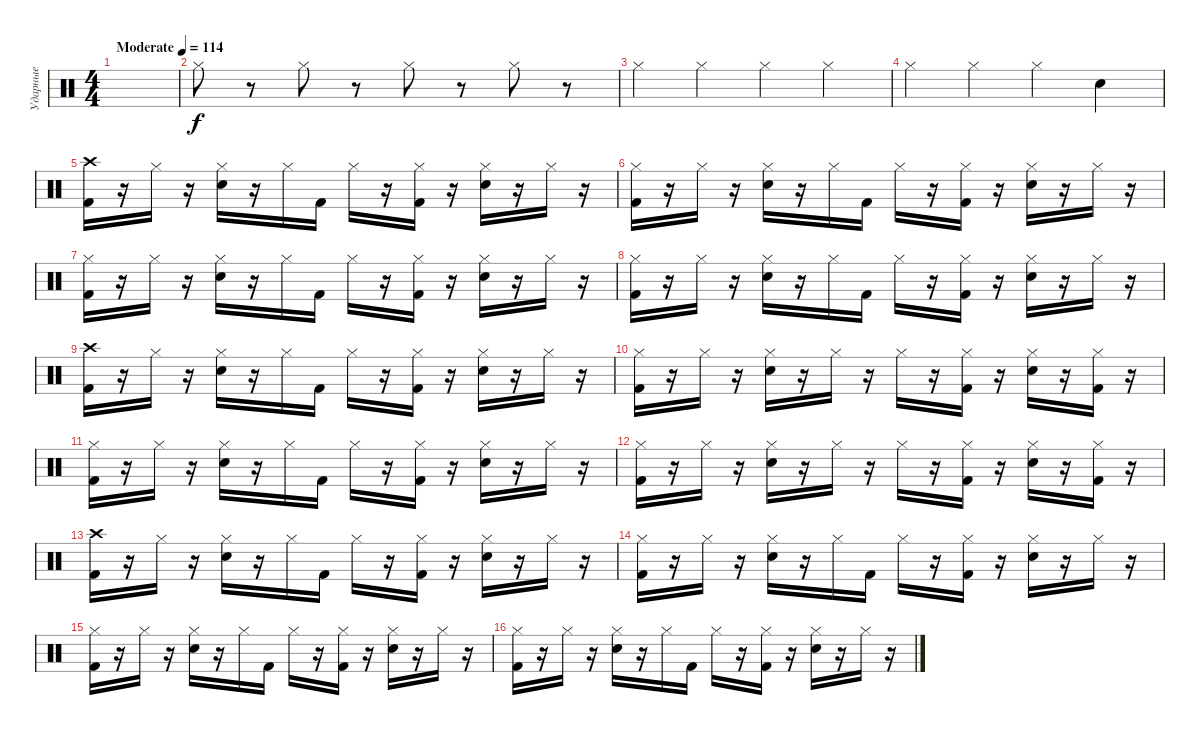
\track ("Ударные" "Ударные") {instrument percussion}
\staff {score}
\articulation defaults
\ts (4 4)
\tempo (114 "Moderate")
\clef neutral
\ks c
|
"Hi-Hat (closed)".8 r.8 "Hi-Hat (closed)".8 r.8 "Hi-Hat (closed)".8 r.8 "Hi-Hat (closed)".8 r.8 |
"Hi-Hat (closed)".4 "Hi-Hat (closed)".4 "Hi-Hat (closed)".4 "Hi-Hat (closed)".4 |
"Hi-Hat (closed)".4 "Hi-Hat (closed)".4 "Hi-Hat (closed)".4 "Electric Snare (hit)".4 |
("Kick (hit) 2" "Crash high (hit)").16 r.16 "Hi-Hat (closed)".16 r.16 ("Electric Snare (hit)" "Hi-Hat (closed)").16 r.16 "Hi-Hat (closed)".16 "Kick (hit) 2".16 "Hi-Hat (closed)".16 r.16 ("Kick (hit) 2" "Hi-Hat (closed)").16 r.16 ("Electric Snare (hit)" "Hi-Hat (closed)").16 r.16 "Hi-Hat (closed)".16 r.16 |
("Kick (hit) 2" "Hi-Hat (closed)").16 r.16 "Hi-Hat (closed)".16 r.16 ("Electric Snare (hit)" "Hi-Hat (closed)").16 r.16 "Hi-Hat (closed)".16 "Kick (hit) 2".16 "Hi-Hat (closed)".16 r.16 ("Kick (hit) 2" "Hi-Hat (closed)").16 r.16 ("Electric Snare (hit)" "Hi-Hat (closed)").16 r.16 "Hi-Hat (closed)".16 r.16 |
("Kick (hit) 2" "Hi-Hat (closed)").16 r.16 "Hi-Hat (closed)".16 r.16 ("Electric Snare (hit)" "Hi-Hat (closed)").16 r.16 "Hi-Hat (closed)".16 "Kick (hit) 2".16 "Hi-Hat (closed)".16 r.16 ("Kick (hit) 2" "Hi-Hat (closed)").16 r.16 ("Electric Snare (hit)" "Hi-Hat (closed)").16 r.16 "Hi-Hat (closed)".16 r.16 |
("Kick (hit) 2" "Hi-Hat (closed)").16 r.16 "Hi-Hat (closed)".16 r.16 ("Electric Snare (hit)" "Hi-Hat (closed)").16 r.16 "Hi-Hat (closed)".16 "Kick (hit) 2".16 "Hi-Hat (closed)".16 r.16 ("Kick (hit) 2" "Hi-Hat (closed)").16 r.16 ("Electric Snare (hit)" "Hi-Hat (closed)").16 r.16 "Hi-Hat (closed)".16 r.16 |
("Kick (hit) 2" "Crash high (hit)").16 r.16 "Hi-Hat (closed)".16 r.16 ("Electric Snare (hit)" "Hi-Hat (closed)").16 r.16 "Hi-Hat (closed)".16 "Kick (hit) 2".16 "Hi-Hat (closed)".16 r.16 ("Kick (hit) 2" "Hi-Hat (closed)").16 r.16 ("Electric Snare (hit)" "Hi-Hat (closed)").16 r.16 "Hi-Hat (closed)".16 r.16 |
("Kick (hit) 2" "Hi-Hat (closed)").16 r.16 "Hi-Hat (closed)".16 r.16 ("Electric Snare (hit)" "Hi-Hat (closed)").16 r.16 "Hi-Hat (closed)".16 r.16 "Hi-Hat (closed)".16 r.16 ("Kick (hit) 2" "Hi-Hat (closed)").16 r.16 ("Electric Snare (hit)" "Hi-Hat (closed)").16 r.16 ("Kick (hit) 2" "Hi-Hat (closed)").16 r.16 |
("Kick (hit) 2" "Hi-Hat (closed)").16 r.16 "Hi-Hat (closed)".16 r.16 ("Electric Snare (hit)" "Hi-Hat (closed)").16 r.16 "Hi-Hat (closed)".16 "Kick (hit) 2".16 "Hi-Hat (closed)".16 r.16 ("Kick (hit) 2" "Hi-Hat (closed)").16 r.16 ("Electric Snare (hit)" "Hi-Hat (closed)").16 r.16 "Hi-Hat (closed)".16 r.16 |
("Kick (hit) 2" "Hi-Hat (closed)").16 r.16 "Hi-Hat (closed)".16 r.16 ("Electric Snare (hit)" "Hi-Hat (closed)").16 r.16 "Hi-Hat (closed)".16 r.16 "Hi-Hat (closed)".16 r.16 ("Kick (hit) 2" "Hi-Hat (closed)").16 r.16 ("Electric Snare (hit)" "Hi-Hat (closed)").16 r.16 ("Kick (hit) 2" "Hi-Hat (closed)").16 r.16 |
("Kick (hit) 2" "Crash high (hit)").16 r.16 "Hi-Hat (closed)".16 r.16 ("Electric Snare (hit)" "Hi-Hat (closed)").16 r.16 "Hi-Hat (closed)".16 "Kick (hit) 2".16 "Hi-Hat (closed)".16 r.16 ("Kick (hit) 2" "Hi-Hat (closed)").16 r.16 ("Electric Snare (hit)" "Hi-Hat (closed)").16 r.16 "Hi-Hat (closed)".16 r.16 |
("Kick (hit) 2" "Hi-Hat (closed)").16 r.16 "Hi-Hat (closed)".16 r.16 ("Electric Snare (hit)" "Hi-Hat (closed)").16 r.16 "Hi-Hat (closed)".16 "Kick (hit) 2".16 "Hi-Hat (closed)".16 r.16 ("Kick (hit) 2" "Hi-Hat (closed)").16 r.16 ("Electric Snare (hit)" "Hi-Hat (closed)").16 r.16 "Hi-Hat (closed)".16 r.16 |
("Kick (hit) 2" "Hi-Hat (closed)").16 r.16 "Hi-Hat (closed)".16 r.16 ("Electric Snare (hit)" "Hi-Hat (closed)").16 r.16 "Hi-Hat (closed)".16 "Kick (hit) 2".16 "Hi-Hat (closed)".16 r.16 ("Kick (hit) 2" "Hi-Hat (closed)").16 r.16 ("Electric Snare (hit)" "Hi-Hat (closed)").16 r.16 "Hi-Hat (closed)".16 r.16 |
("Kick (hit) 2" "Hi-Hat (closed)").16 r.16 "Hi-Hat (closed)".16 r.16 ("Electric Snare (hit)" "Hi-Hat (closed)").16 r.16 "Hi-Hat (closed)".16 "Kick (hit) 2".16 "Hi-Hat (closed)".16 r.16 ("Kick (hit) 2" "Hi-Hat (closed)").16 r.16 ("Electric Snare (hit)" "Hi-Hat (closed)").16 r.16 "Hi-Hat (closed)".16 r.16
